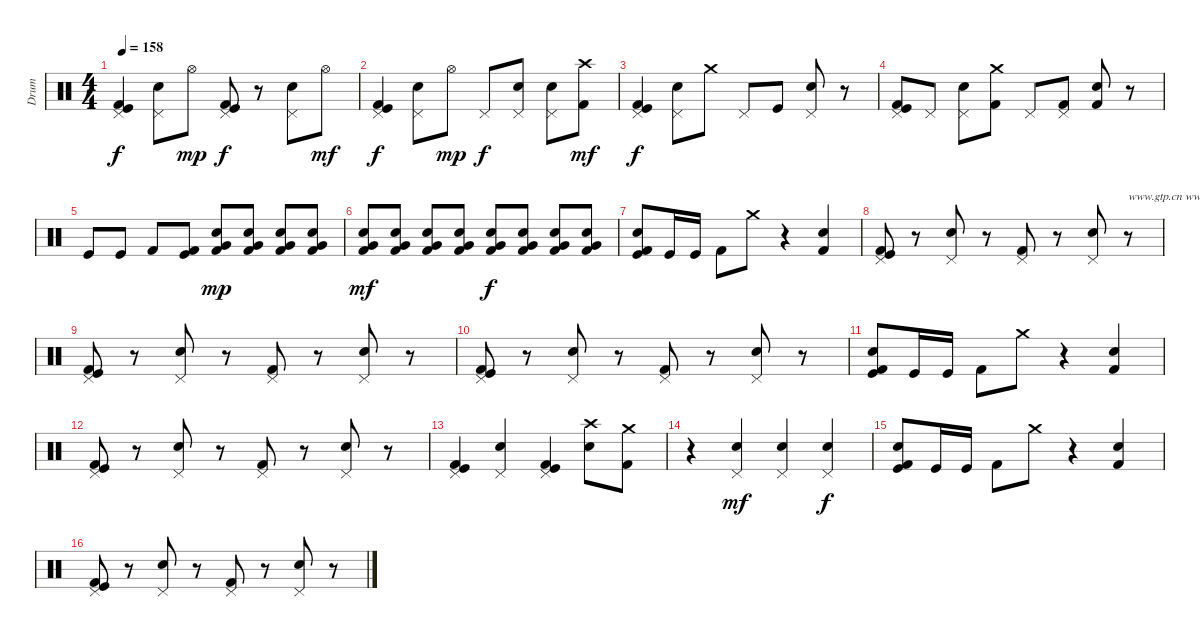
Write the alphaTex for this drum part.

\track ("Drum" "Drum") {instrument percussion}
\staff {score}
\articulation defaults
\ts (4 4)
\tempo 158
\clef neutral
\ks c
("Pedal Hi-Hat (hit)" "Kick (hit)" "Kick (hit) 2").4{dy f} ("Electric Snare (hit)" "Pedal Hi-Hat (hit)").8 "Hi-Hat (open)".8{dy mp} ("Kick (hit) 2" "Kick (hit)" "Pedal Hi-Hat (hit)").8{dy f} r.8 ("Pedal Hi-Hat (hit)" "Electric Snare (hit)").8 "Hi-Hat (open)".8{dy mf} |
("Pedal Hi-Hat (hit)" "Kick (hit)" "Kick (hit) 2").4{dy f} ("Electric Snare (hit)" "Pedal Hi-Hat (hit)").8 "Hi-Hat (open)".8{dy mp} "Pedal Hi-Hat (hit)".8{dy f} ("Pedal Hi-Hat (hit)" "Electric Snare (hit)").8 ("Pedal Hi-Hat (hit)" "Electric Snare (hit)").8 ("Crash high (hit)" "Kick (hit) 2").8{dy mf} |
("Kick (hit) 2" "Kick (hit)" "Pedal Hi-Hat (hit)").4{dy f} ("Pedal Hi-Hat (hit)" "Electric Snare (hit)").8 "Crash medium (hit)".8 "Pedal Hi-Hat (hit)".8 "Kick (hit)".8 ("Pedal Hi-Hat (hit)" "Electric Snare (hit)").8 r.8 |
("Pedal Hi-Hat (hit)" "Kick (hit) 2" "Kick (hit)").8 "Pedal Hi-Hat (hit)".8 ("Pedal Hi-Hat (hit)" "Electric Snare (hit)").8 ("Crash medium (hit)" "Kick (hit) 2").8 "Pedal Hi-Hat (hit)".8 ("Pedal Hi-Hat (hit)" "Kick (hit) 2").8 ("Kick (hit) 2" "Electric Snare (hit)").8 r.8 |
"Kick (hit)".8 "Kick (hit)".8 "Kick (hit) 2".8 ("Kick (hit) 2" "Kick (hit)").8 ("Kick (hit) 2" "Electric Snare (hit)" "Very Low Tom (hit)").8{dy mp} ("Kick (hit) 2" "Electric Snare (hit)" "Very Low Tom (hit)").8 ("Kick (hit) 2" "Electric Snare (hit)" "Very Low Tom (hit)").8 ("Kick (hit) 2" "Electric Snare (hit)" "Very Low Tom (hit)").8 |
("Kick (hit) 2" "Electric Snare (hit)" "Very Low Tom (hit)").8{dy mf} ("Kick (hit) 2" "Electric Snare (hit)" "Very Low Tom (hit)").8 ("Kick (hit) 2" "Electric Snare (hit)" "Very Low Tom (hit)").8 ("Kick (hit) 2" "Electric Snare (hit)" "Very Low Tom (hit)").8 ("Kick (hit) 2" "Electric Snare (hit)" "Very Low Tom (hit)").8{dy f} ("Kick (hit) 2" "Electric Snare (hit)" "Very Low Tom (hit)").8 ("Kick (hit) 2" "Electric Snare (hit)" "Very Low Tom (hit)").8 ("Kick (hit) 2" "Electric Snare (hit)" "Very Low Tom (hit)").8 |
("Electric Snare (hit)" "Kick (hit) 2" "Kick (hit)").8 "Kick (hit)".16 "Kick (hit)".16 "Kick (hit) 2".8 "Crash medium (hit)".8 r.4 ("Kick (hit) 2" "Electric Snare (hit)").4 |
("Pedal Hi-Hat (hit)" "Kick (hit) 2" "Kick (hit)").8 r.8 ("Electric Snare (hit)" "Pedal Hi-Hat (hit)").8 r.8 ("Pedal Hi-Hat (hit)" "Kick (hit) 2").8 r.8 ("Electric Snare (hit)" "Pedal Hi-Hat (hit)").8 r.8{txt "www.gtp.cn www.51gtp.com联合为您提供优秀的GTP!"} |
("Pedal Hi-Hat (hit)" "Kick (hit) 2" "Kick (hit)").8 r.8 ("Electric Snare (hit)" "Pedal Hi-Hat (hit)").8 r.8 ("Pedal Hi-Hat (hit)" "Kick (hit) 2").8 r.8 ("Electric Snare (hit)" "Pedal Hi-Hat (hit)").8 r.8 |
("Pedal Hi-Hat (hit)" "Kick (hit) 2" "Kick (hit)").8 r.8 ("Electric Snare (hit)" "Pedal Hi-Hat (hit)").8 r.8 ("Pedal Hi-Hat (hit)" "Kick (hit) 2").8 r.8 ("Electric Snare (hit)" "Pedal Hi-Hat (hit)").8 r.8 |
("Electric Snare (hit)" "Kick (hit) 2" "Kick (hit)").8 "Kick (hit)".16 "Kick (hit)".16 "Kick (hit) 2".8 "Crash medium (hit)".8 r.4 ("Kick (hit) 2" "Electric Snare (hit)").4 |
("Pedal Hi-Hat (hit)" "Kick (hit) 2" "Kick (hit)").8 r.8 ("Electric Snare (hit)" "Pedal Hi-Hat (hit)").8 r.8 ("Pedal Hi-Hat (hit)" "Kick (hit) 2").8 r.8 ("Electric Snare (hit)" "Pedal Hi-Hat (hit)").8 r.8 |
("Pedal Hi-Hat (hit)" "Kick (hit) 2" "Kick (hit)").4 ("Electric Snare (hit)" "Pedal Hi-Hat (hit)").4 ("Kick (hit) 2" "Kick (hit)" "Pedal Hi-Hat (hit)").4 ("Crash high (hit)" "Electric Snare (hit)").8 ("Crash medium (hit)" "Kick (hit) 2").8 |
r.4 ("Pedal Hi-Hat (hit)" "Electric Snare (hit)").4{dy mf} ("Pedal Hi-Hat (hit)" "Electric Snare (hit)").4 ("Pedal Hi-Hat (hit)" "Electric Snare (hit)").4{dy f} |
("Electric Snare (hit)" "Kick (hit) 2" "Kick (hit)").8 "Kick (hit)".16 "Kick (hit)".16 "Kick (hit) 2".8 "Crash medium (hit)".8 r.4 ("Kick (hit) 2" "Electric Snare (hit)").4 |
("Pedal Hi-Hat (hit)" "Kick (hit) 2" "Kick (hit)").8 r.8 ("Electric Snare (hit)" "Pedal Hi-Hat (hit)").8 r.8 ("Pedal Hi-Hat (hit)" "Kick (hit) 2").8 r.8 ("Electric Snare (hit)" "Pedal Hi-Hat (hit)").8 r.8
